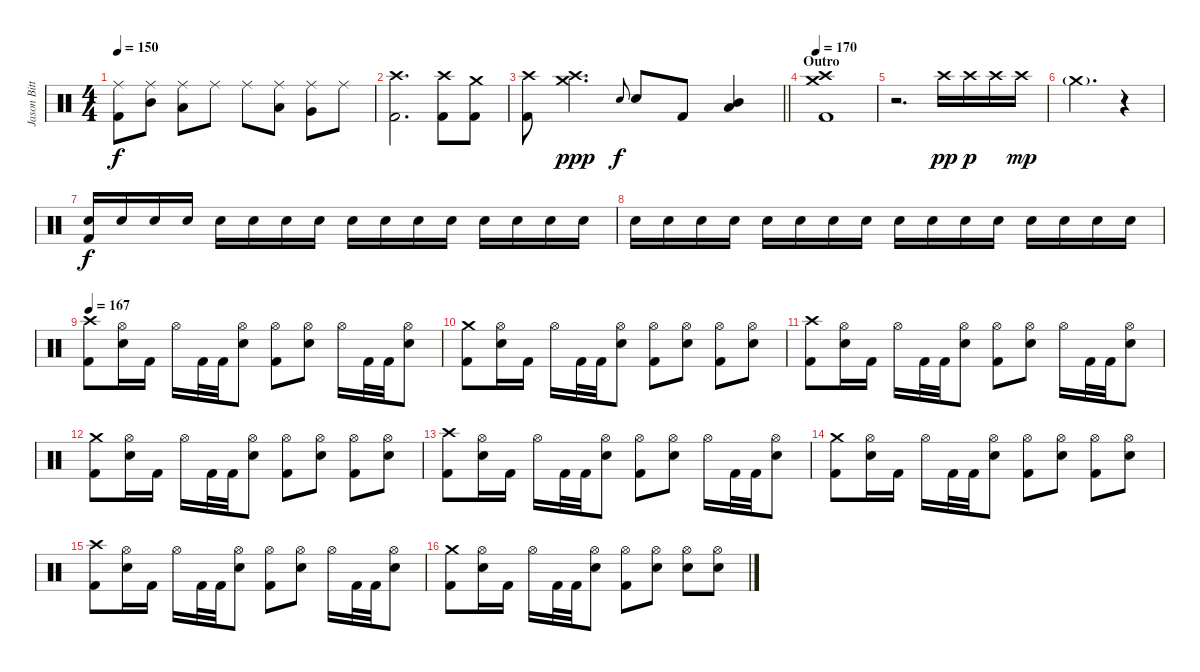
\track ("Jason Bittner" "Jason Bitt") {instrument percussion}
\staff {score}
\articulation defaults
\ts (4 4)
\tempo 150
\clef neutral
\ks c
("Ride (middle)" "Kick (hit) 2").8{dy f} ("Ride (middle)" "Mid Tom (hit)").8 ("Ride (middle)" "Low Tom (hit)").8 "Ride (middle)".8 "Ride (middle)".8 ("Ride (middle)" "Low Tom (hit)").8 ("Ride (middle)" "Very Low Tom (hit)").8 "Ride (middle)".8 |
("Crash high (hit)" "Kick (hit) 2").2{d} ("Crash high (hit)" "Kick (hit) 2").8 ("Crash medium (hit)" "Kick (hit) 2").8 |
\barLineRight lightlight
("Crash high (hit)" "Kick (hit) 2").8 ("Crash medium (hit)" "Crash high (hit)").4{d dy ppp} "Electric Snare (hit)".8{gr onbeat dy f} "Electric Snare (hit)".8 "Kick (hit) 2".8 ("Mid Tom (hit)" "Low Tom (hit)").4 |
\section ("" "Outro")
\tempo 170
("Crash medium (hit)" "Crash high (hit)" "Kick (hit) 2").1 |
r.2{d} "Crash high (hit)".16{dy pp} "Crash high (hit)".16{dy p} "Crash high (hit)".16 "Crash high (hit)".16{dy mp} |
"Crash medium (hit)"{g}.2{d} r.4{volume 8} |
("Electric Snare (hit)" "Kick (hit) 2").16{dy f volume 16} "Electric Snare (hit)".16 "Electric Snare (hit)".16 "Electric Snare (hit)".16 "Electric Snare (hit)".16 "Electric Snare (hit)".16 "Electric Snare (hit)".16 "Electric Snare (hit)".16 "Electric Snare (hit)".16 "Electric Snare (hit)".16 "Electric Snare (hit)".16 "Electric Snare (hit)".16 "Electric Snare (hit)".16 "Electric Snare (hit)".16 "Electric Snare (hit)".16 "Electric Snare (hit)".16 |
"Electric Snare (hit)".16 "Electric Snare (hit)".16 "Electric Snare (hit)".16 "Electric Snare (hit)".16 "Electric Snare (hit)".16 "Electric Snare (hit)".16 "Electric Snare (hit)".16 "Electric Snare (hit)".16 "Electric Snare (hit)".16 "Electric Snare (hit)".16 "Electric Snare (hit)".16 "Electric Snare (hit)".16 "Electric Snare (hit)".16 "Electric Snare (hit)".16 "Electric Snare (hit)".16 "Electric Snare (hit)".16 |
\tempo 167
("Crash high (hit)" "Kick (hit) 2").8 ("Hi-Hat (open)" "Electric Snare (hit)").16 "Kick (hit) 2".16 "Hi-Hat (open)".16 "Kick (hit) 2".32 "Kick (hit) 2".32 ("Hi-Hat (open)" "Electric Snare (hit)").8 ("Hi-Hat (open)" "Kick (hit) 2").8 ("Hi-Hat (open)" "Electric Snare (hit)").8 "Hi-Hat (open)".16 "Kick (hit) 2".32 "Kick (hit) 2".32 ("Hi-Hat (open)" "Electric Snare (hit)").8 |
("Crash medium (hit)" "Kick (hit) 2").8 ("Hi-Hat (open)" "Electric Snare (hit)").16 "Kick (hit) 2".16 "Hi-Hat (open)".16 "Kick (hit) 2".32 "Kick (hit) 2".32 ("Hi-Hat (open)" "Electric Snare (hit)").8 ("Hi-Hat (open)" "Kick (hit) 2").8 ("Hi-Hat (open)" "Electric Snare (hit)").8 ("Hi-Hat (open)" "Kick (hit) 2").8 ("Hi-Hat (open)" "Electric Snare (hit)").8 |
("Crash high (hit)" "Kick (hit) 2").8 ("Hi-Hat (open)" "Electric Snare (hit)").16 "Kick (hit) 2".16 "Hi-Hat (open)".16 "Kick (hit) 2".32 "Kick (hit) 2".32 ("Hi-Hat (open)" "Electric Snare (hit)").8 ("Hi-Hat (open)" "Kick (hit) 2").8 ("Hi-Hat (open)" "Electric Snare (hit)").8 "Hi-Hat (open)".16 "Kick (hit) 2".32 "Kick (hit) 2".32 ("Hi-Hat (open)" "Electric Snare (hit)").8 |
("Crash medium (hit)" "Kick (hit) 2").8 ("Hi-Hat (open)" "Electric Snare (hit)").16 "Kick (hit) 2".16 "Hi-Hat (open)".16 "Kick (hit) 2".32 "Kick (hit) 2".32 ("Hi-Hat (open)" "Electric Snare (hit)").8 ("Hi-Hat (open)" "Kick (hit) 2").8 ("Hi-Hat (open)" "Electric Snare (hit)").8 ("Hi-Hat (open)" "Kick (hit) 2").8 ("Hi-Hat (open)" "Electric Snare (hit)").8 |
("Crash high (hit)" "Kick (hit) 2").8 ("Hi-Hat (open)" "Electric Snare (hit)").16 "Kick (hit) 2".16 "Hi-Hat (open)".16 "Kick (hit) 2".32 "Kick (hit) 2".32 ("Hi-Hat (open)" "Electric Snare (hit)").8 ("Hi-Hat (open)" "Kick (hit) 2").8 ("Hi-Hat (open)" "Electric Snare (hit)").8 "Hi-Hat (open)".16 "Kick (hit) 2".32 "Kick (hit) 2".32 ("Hi-Hat (open)" "Electric Snare (hit)").8 |
("Crash medium (hit)" "Kick (hit) 2").8 ("Hi-Hat (open)" "Electric Snare (hit)").16 "Kick (hit) 2".16 "Hi-Hat (open)".16 "Kick (hit) 2".32 "Kick (hit) 2".32 ("Hi-Hat (open)" "Electric Snare (hit)").8 ("Hi-Hat (open)" "Kick (hit) 2").8 ("Hi-Hat (open)" "Electric Snare (hit)").8 ("Hi-Hat (open)" "Kick (hit) 2").8 ("Hi-Hat (open)" "Electric Snare (hit)").8 |
("Crash high (hit)" "Kick (hit) 2").8 ("Hi-Hat (open)" "Electric Snare (hit)").16 "Kick (hit) 2".16 "Hi-Hat (open)".16 "Kick (hit) 2".32 "Kick (hit) 2".32 ("Hi-Hat (open)" "Electric Snare (hit)").8 ("Hi-Hat (open)" "Kick (hit) 2").8 ("Hi-Hat (open)" "Electric Snare (hit)").8 "Hi-Hat (open)".16 "Kick (hit) 2".32 "Kick (hit) 2".32 ("Hi-Hat (open)" "Electric Snare (hit)").8 |
("Crash medium (hit)" "Kick (hit) 2").8 ("Hi-Hat (open)" "Electric Snare (hit)").16 "Kick (hit) 2".16 "Hi-Hat (open)".16 "Kick (hit) 2".32 "Kick (hit) 2".32 ("Hi-Hat (open)" "Electric Snare (hit)").8 ("Hi-Hat (open)" "Kick (hit) 2").8 ("Hi-Hat (open)" "Electric Snare (hit)").8 ("Hi-Hat (open)" "Electric Snare (hit)").8 ("Hi-Hat (open)" "Electric Snare (hit)").8
